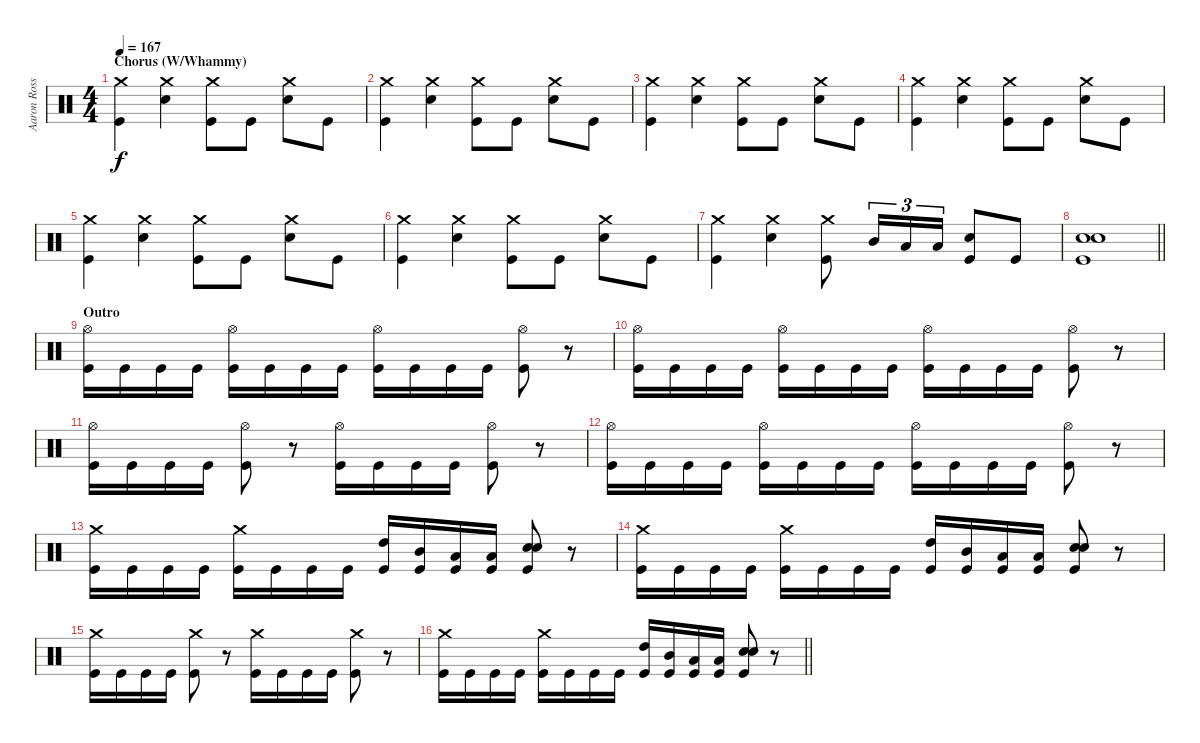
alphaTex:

\track ("Aaron Rossi (Drums)" "Aaron Ross") {instrument percussion}
\staff {score}
\articulation defaults
\ts (4 4)
\section ("" "Chorus (W/Whammy)")
\tempo 167
\clef neutral
\ks c
("Crash medium (hit)" "Kick (hit)").4{dy f} ("Crash medium (hit)" "Snare (hit) 2").4 ("Crash medium (hit)" "Kick (hit)").8 "Kick (hit)".8 ("Crash medium (hit)" "Snare (hit) 2").8 "Kick (hit)".8 |
("Crash medium (hit)" "Kick (hit)").4 ("Crash medium (hit)" "Snare (hit) 2").4 ("Crash medium (hit)" "Kick (hit)").8 "Kick (hit)".8 ("Crash medium (hit)" "Snare (hit) 2").8 "Kick (hit)".8 |
("Crash medium (hit)" "Kick (hit)").4 ("Crash medium (hit)" "Snare (hit) 2").4 ("Crash medium (hit)" "Kick (hit)").8 "Kick (hit)".8 ("Crash medium (hit)" "Snare (hit) 2").8 "Kick (hit)".8 |
("Crash medium (hit)" "Kick (hit)").4 ("Crash medium (hit)" "Snare (hit) 2").4 ("Crash medium (hit)" "Kick (hit)").8 "Kick (hit)".8 ("Crash medium (hit)" "Snare (hit) 2").8 "Kick (hit)".8 |
("Crash medium (hit)" "Kick (hit)").4 ("Crash medium (hit)" "Snare (hit) 2").4 ("Crash medium (hit)" "Kick (hit)").8 "Kick (hit)".8 ("Crash medium (hit)" "Snare (hit) 2").8 "Kick (hit)".8 |
("Crash medium (hit)" "Kick (hit)").4 ("Crash medium (hit)" "Snare (hit) 2").4 ("Crash medium (hit)" "Kick (hit)").8 "Kick (hit)".8 ("Crash medium (hit)" "Snare (hit) 2").8 "Kick (hit)".8 |
("Crash medium (hit)" "Kick (hit)").4 ("Crash medium (hit)" "Snare (hit) 2").4 ("Crash medium (hit)" "Kick (hit)").8 "Mid Tom (hit)".16{tu (3 2)} "Low Tom (hit)".16{tu (3 2)} "Low Floor Tom (hit)".16{tu (3 2)} ("Snare (hit) 2" "Kick (hit)").8 "Kick (hit)".8 |
\barLineRight lightlight
("Snare (hit) 2" "Snare (hit) 2" "Kick (hit)").1 |
\section ("" "Outro")
("Hi-Hat (open)" "Kick (hit)").16 "Kick (hit)".16 "Kick (hit)".16 "Kick (hit)".16 ("Hi-Hat (open)" "Kick (hit)").16 "Kick (hit)".16 "Kick (hit)".16 "Kick (hit)".16 ("Hi-Hat (open)" "Kick (hit)").16 "Kick (hit)".16 "Kick (hit)".16 "Kick (hit)".16 ("Hi-Hat (open)" "Kick (hit)").8 r.8 |
("Hi-Hat (open)" "Kick (hit)").16 "Kick (hit)".16 "Kick (hit)".16 "Kick (hit)".16 ("Hi-Hat (open)" "Kick (hit)").16 "Kick (hit)".16 "Kick (hit)".16 "Kick (hit)".16 ("Hi-Hat (open)" "Kick (hit)").16 "Kick (hit)".16 "Kick (hit)".16 "Kick (hit)".16 ("Hi-Hat (open)" "Kick (hit)").8 r.8 |
("Hi-Hat (open)" "Kick (hit)").16 "Kick (hit)".16 "Kick (hit)".16 "Kick (hit)".16 ("Hi-Hat (open)" "Kick (hit)").8 r.8 ("Hi-Hat (open)" "Kick (hit)").16 "Kick (hit)".16 "Kick (hit)".16 "Kick (hit)".16 ("Hi-Hat (open)" "Kick (hit)").8 r.8 |
("Hi-Hat (open)" "Kick (hit)").16 "Kick (hit)".16 "Kick (hit)".16 "Kick (hit)".16 ("Hi-Hat (open)" "Kick (hit)").16 "Kick (hit)".16 "Kick (hit)".16 "Kick (hit)".16 ("Hi-Hat (open)" "Kick (hit)").16 "Kick (hit)".16 "Kick (hit)".16 "Kick (hit)".16 ("Hi-Hat (open)" "Kick (hit)").8 r.8 |
("Crash medium (hit)" "Kick (hit)").16 "Kick (hit)".16 "Kick (hit)".16 "Kick (hit)".16 ("Crash medium (hit)" "Kick (hit)").16 "Kick (hit)".16 "Kick (hit)".16 "Kick (hit)".16 ("High Tom (hit)" "Kick (hit)").16 ("Mid Tom (hit)" "Kick (hit)").16 ("Low Tom (hit)" "Kick (hit)").16 ("Low Floor Tom (hit)" "Kick (hit)").16 ("Snare (hit) 2" "Snare (hit) 2" "Kick (hit)").8 r.8 |
("Crash medium (hit)" "Kick (hit)").16 "Kick (hit)".16 "Kick (hit)".16 "Kick (hit)".16 ("Crash medium (hit)" "Kick (hit)").16 "Kick (hit)".16 "Kick (hit)".16 "Kick (hit)".16 ("High Tom (hit)" "Kick (hit)").16 ("Mid Tom (hit)" "Kick (hit)").16 ("Low Tom (hit)" "Kick (hit)").16 ("Low Floor Tom (hit)" "Kick (hit)").16 ("Snare (hit) 2" "Snare (hit) 2" "Kick (hit)").8 r.8 |
("Crash medium (hit)" "Kick (hit)").16 "Kick (hit)".16 "Kick (hit)".16 "Kick (hit)".16 ("Crash medium (hit)" "Kick (hit)").8 r.8 ("Crash medium (hit)" "Kick (hit)").16 "Kick (hit)".16 "Kick (hit)".16 "Kick (hit)".16 ("Crash medium (hit)" "Kick (hit)").8 r.8 |
\barLineRight lightlight
("Crash medium (hit)" "Kick (hit)").16 "Kick (hit)".16 "Kick (hit)".16 "Kick (hit)".16 ("Crash medium (hit)" "Kick (hit)").16 "Kick (hit)".16 "Kick (hit)".16 "Kick (hit)".16 ("High Tom (hit)" "Kick (hit)").16 ("Mid Tom (hit)" "Kick (hit)").16 ("Low Tom (hit)" "Kick (hit)").16 ("Low Floor Tom (hit)" "Kick (hit)").16 ("Snare (hit) 2" "Snare (hit) 2" "Kick (hit)").8 r.8
